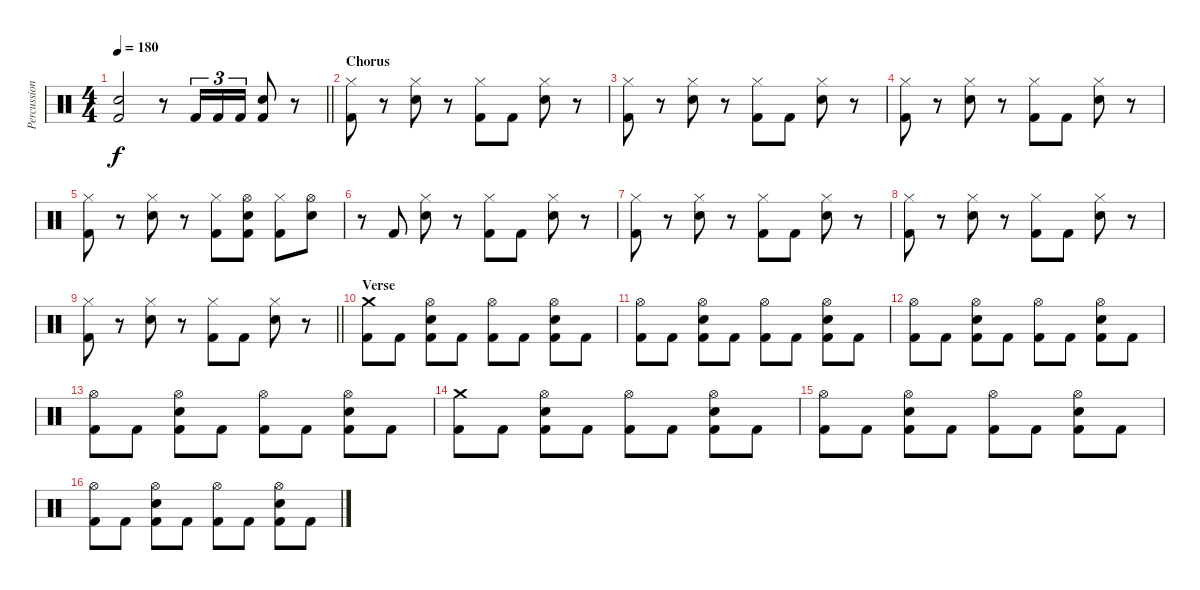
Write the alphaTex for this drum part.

\track ("Percussion" "Percussion") {instrument percussion}
\staff {score}
\articulation defaults
\ts (4 4)
\tempo 180
\clef neutral
\barLineRight lightlight
\ks c
("Electric Snare (hit)" "Kick (hit) 2").2{dy f} r.8 "Kick (hit) 2".16{tu (3 2)} "Kick (hit) 2".16{tu (3 2)} "Kick (hit) 2".16{tu (3 2)} ("Electric Snare (hit)" "Kick (hit) 2").8 r.8 |
\section ("" "Chorus")
("Hi-Hat (closed)" "Kick (hit) 2").8 r.8 ("Hi-Hat (closed)" "Electric Snare (hit)").8 r.8 ("Hi-Hat (closed)" "Kick (hit) 2").8 "Kick (hit) 2".8 ("Hi-Hat (closed)" "Electric Snare (hit)").8 r.8 |
("Hi-Hat (closed)" "Kick (hit) 2").8 r.8 ("Hi-Hat (closed)" "Electric Snare (hit)").8 r.8 ("Hi-Hat (closed)" "Kick (hit) 2").8 "Kick (hit) 2".8 ("Hi-Hat (closed)" "Electric Snare (hit)").8 r.8 |
("Hi-Hat (closed)" "Kick (hit) 2").8 r.8 ("Hi-Hat (closed)" "Electric Snare (hit)").8 r.8 ("Hi-Hat (closed)" "Kick (hit) 2").8 "Kick (hit) 2".8 ("Hi-Hat (closed)" "Electric Snare (hit)").8 r.8 |
("Hi-Hat (closed)" "Kick (hit) 2").8 r.8 ("Hi-Hat (closed)" "Electric Snare (hit)").8 r.8 ("Hi-Hat (closed)" "Kick (hit) 2").8 ("Hi-Hat (open)" "Electric Snare (hit)" "Kick (hit) 2").8 ("Hi-Hat (closed)" "Kick (hit) 2").8 ("Hi-Hat (open)" "Electric Snare (hit)").8 |
r.8 "Kick (hit) 2".8 ("Hi-Hat (closed)" "Electric Snare (hit)").8 r.8 ("Hi-Hat (closed)" "Kick (hit) 2").8 "Kick (hit) 2".8 ("Hi-Hat (closed)" "Electric Snare (hit)").8 r.8 |
("Hi-Hat (closed)" "Kick (hit) 2").8 r.8 ("Hi-Hat (closed)" "Electric Snare (hit)").8 r.8 ("Hi-Hat (closed)" "Kick (hit) 2").8 "Kick (hit) 2".8 ("Hi-Hat (closed)" "Electric Snare (hit)").8 r.8 |
("Hi-Hat (closed)" "Kick (hit) 2").8 r.8 ("Hi-Hat (closed)" "Electric Snare (hit)").8 r.8 ("Hi-Hat (closed)" "Kick (hit) 2").8 "Kick (hit) 2".8 ("Hi-Hat (closed)" "Electric Snare (hit)").8 r.8 |
\barLineRight lightlight
("Hi-Hat (closed)" "Kick (hit) 2").8 r.8 ("Hi-Hat (closed)" "Electric Snare (hit)").8 r.8 ("Hi-Hat (closed)" "Kick (hit) 2").8 "Kick (hit) 2".8 ("Hi-Hat (closed)" "Electric Snare (hit)").8 r.8 |
\section ("" "Verse")
("Crash medium (hit)" "Kick (hit) 2").8 "Kick (hit) 2".8 ("Hi-Hat (open)" "Electric Snare (hit)" "Kick (hit) 2").8 "Kick (hit) 2".8 ("Hi-Hat (open)" "Kick (hit) 2").8 "Kick (hit) 2".8 ("Hi-Hat (open)" "Electric Snare (hit)" "Kick (hit) 2").8 "Kick (hit) 2".8 |
("Hi-Hat (open)" "Kick (hit) 2").8 "Kick (hit) 2".8 ("Hi-Hat (open)" "Electric Snare (hit)" "Kick (hit) 2").8 "Kick (hit) 2".8 ("Hi-Hat (open)" "Kick (hit) 2").8 "Kick (hit) 2".8 ("Hi-Hat (open)" "Electric Snare (hit)" "Kick (hit) 2").8 "Kick (hit) 2".8 |
("Hi-Hat (open)" "Kick (hit) 2").8 "Kick (hit) 2".8 ("Hi-Hat (open)" "Electric Snare (hit)" "Kick (hit) 2").8 "Kick (hit) 2".8 ("Hi-Hat (open)" "Kick (hit) 2").8 "Kick (hit) 2".8 ("Hi-Hat (open)" "Electric Snare (hit)" "Kick (hit) 2").8 "Kick (hit) 2".8 |
("Hi-Hat (open)" "Kick (hit) 2").8 "Kick (hit) 2".8 ("Hi-Hat (open)" "Electric Snare (hit)" "Kick (hit) 2").8 "Kick (hit) 2".8 ("Hi-Hat (open)" "Kick (hit) 2").8 "Kick (hit) 2".8 ("Hi-Hat (open)" "Electric Snare (hit)" "Kick (hit) 2").8 "Kick (hit) 2".8 |
("Crash medium (hit)" "Kick (hit) 2").8 "Kick (hit) 2".8 ("Hi-Hat (open)" "Electric Snare (hit)" "Kick (hit) 2").8 "Kick (hit) 2".8 ("Hi-Hat (open)" "Kick (hit) 2").8 "Kick (hit) 2".8 ("Hi-Hat (open)" "Electric Snare (hit)" "Kick (hit) 2").8 "Kick (hit) 2".8 |
("Hi-Hat (open)" "Kick (hit) 2").8 "Kick (hit) 2".8 ("Hi-Hat (open)" "Electric Snare (hit)" "Kick (hit) 2").8 "Kick (hit) 2".8 ("Hi-Hat (open)" "Kick (hit) 2").8 "Kick (hit) 2".8 ("Hi-Hat (open)" "Electric Snare (hit)" "Kick (hit) 2").8 "Kick (hit) 2".8 |
("Hi-Hat (open)" "Kick (hit) 2").8 "Kick (hit) 2".8 ("Hi-Hat (open)" "Electric Snare (hit)" "Kick (hit) 2").8 "Kick (hit) 2".8 ("Hi-Hat (open)" "Kick (hit) 2").8 "Kick (hit) 2".8 ("Hi-Hat (open)" "Electric Snare (hit)" "Kick (hit) 2").8 "Kick (hit) 2".8
